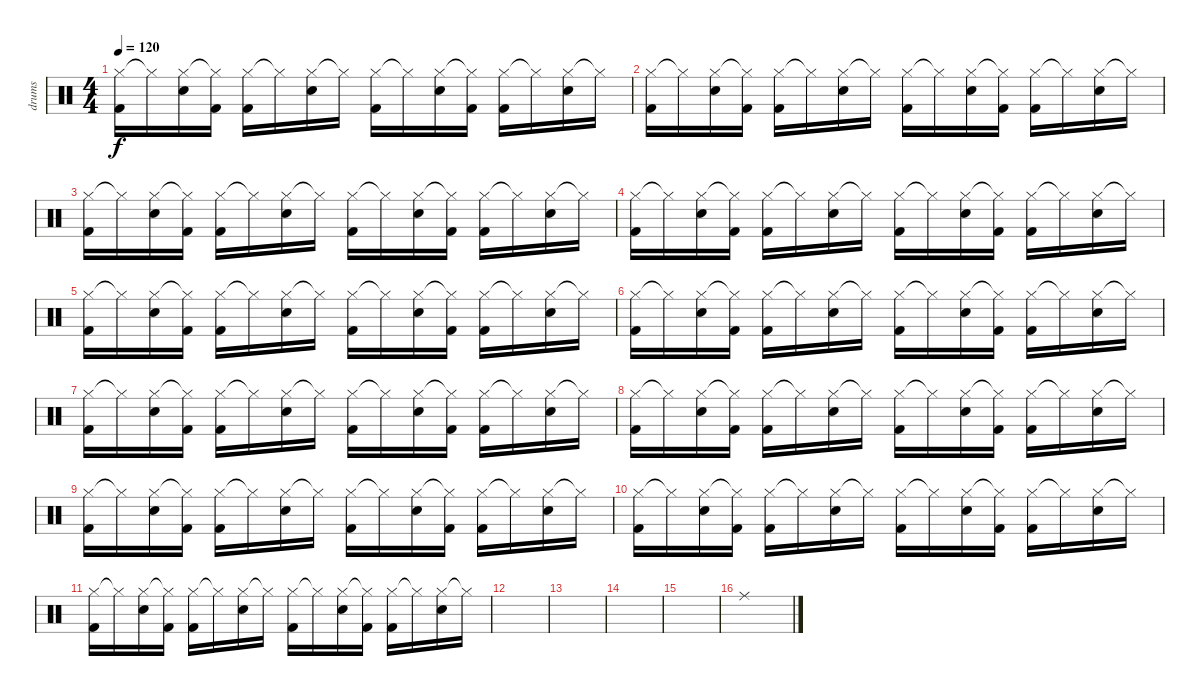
\track ("drums" "drums") {instrument percussion}
\staff {score}
\articulation defaults
\ts (4 4)
\tempo 120
\clef neutral
\ks c
("Hi-Hat (closed)" "Kick (hit) 2").16{dy f} "Hi-Hat (closed)"{t}.16 ("Hi-Hat (closed)" "Snare (hit) 2").16 ("Hi-Hat (closed)"{t} "Kick (hit) 2").16 ("Hi-Hat (closed)" "Kick (hit) 2").16 "Hi-Hat (closed)"{t}.16 ("Hi-Hat (closed)" "Snare (hit) 2").16 "Hi-Hat (closed)"{t}.16 ("Hi-Hat (closed)" "Kick (hit) 2").16 "Hi-Hat (closed)"{t}.16 ("Hi-Hat (closed)" "Snare (hit) 2").16 ("Hi-Hat (closed)"{t} "Kick (hit) 2").16 ("Hi-Hat (closed)" "Kick (hit) 2").16 "Hi-Hat (closed)"{t}.16 ("Hi-Hat (closed)" "Snare (hit) 2").16 "Hi-Hat (closed)"{t}.16 |
("Hi-Hat (closed)" "Kick (hit) 2").16 "Hi-Hat (closed)"{t}.16 ("Hi-Hat (closed)" "Snare (hit) 2").16 ("Hi-Hat (closed)"{t} "Kick (hit) 2").16 ("Hi-Hat (closed)" "Kick (hit) 2").16 "Hi-Hat (closed)"{t}.16 ("Hi-Hat (closed)" "Snare (hit) 2").16 "Hi-Hat (closed)"{t}.16 ("Hi-Hat (closed)" "Kick (hit) 2").16 "Hi-Hat (closed)"{t}.16 ("Hi-Hat (closed)" "Snare (hit) 2").16 ("Hi-Hat (closed)"{t} "Kick (hit) 2").16 ("Hi-Hat (closed)" "Kick (hit) 2").16 "Hi-Hat (closed)"{t}.16 ("Hi-Hat (closed)" "Snare (hit) 2").16 "Hi-Hat (closed)"{t}.16 |
("Hi-Hat (closed)" "Kick (hit) 2").16 "Hi-Hat (closed)"{t}.16 ("Hi-Hat (closed)" "Snare (hit) 2").16 ("Hi-Hat (closed)"{t} "Kick (hit) 2").16 ("Hi-Hat (closed)" "Kick (hit) 2").16 "Hi-Hat (closed)"{t}.16 ("Hi-Hat (closed)" "Snare (hit) 2").16 "Hi-Hat (closed)"{t}.16 ("Hi-Hat (closed)" "Kick (hit) 2").16 "Hi-Hat (closed)"{t}.16 ("Hi-Hat (closed)" "Snare (hit) 2").16 ("Hi-Hat (closed)"{t} "Kick (hit) 2").16 ("Hi-Hat (closed)" "Kick (hit) 2").16 "Hi-Hat (closed)"{t}.16 ("Hi-Hat (closed)" "Snare (hit) 2").16 "Hi-Hat (closed)"{t}.16 |
("Hi-Hat (closed)" "Kick (hit) 2").16 "Hi-Hat (closed)"{t}.16 ("Hi-Hat (closed)" "Snare (hit) 2").16 ("Hi-Hat (closed)"{t} "Kick (hit) 2").16 ("Hi-Hat (closed)" "Kick (hit) 2").16 "Hi-Hat (closed)"{t}.16 ("Hi-Hat (closed)" "Snare (hit) 2").16 "Hi-Hat (closed)"{t}.16 ("Hi-Hat (closed)" "Kick (hit) 2").16 "Hi-Hat (closed)"{t}.16 ("Hi-Hat (closed)" "Snare (hit) 2").16 ("Hi-Hat (closed)"{t} "Kick (hit) 2").16 ("Hi-Hat (closed)" "Kick (hit) 2").16 "Hi-Hat (closed)"{t}.16 ("Hi-Hat (closed)" "Snare (hit) 2").16 "Hi-Hat (closed)"{t}.16 |
("Hi-Hat (closed)" "Kick (hit) 2").16 "Hi-Hat (closed)"{t}.16 ("Hi-Hat (closed)" "Snare (hit) 2").16 ("Hi-Hat (closed)"{t} "Kick (hit) 2").16 ("Hi-Hat (closed)" "Kick (hit) 2").16 "Hi-Hat (closed)"{t}.16 ("Hi-Hat (closed)" "Snare (hit) 2").16 "Hi-Hat (closed)"{t}.16 ("Hi-Hat (closed)" "Kick (hit) 2").16 "Hi-Hat (closed)"{t}.16 ("Hi-Hat (closed)" "Snare (hit) 2").16 ("Hi-Hat (closed)"{t} "Kick (hit) 2").16 ("Hi-Hat (closed)" "Kick (hit) 2").16 "Hi-Hat (closed)"{t}.16 ("Hi-Hat (closed)" "Snare (hit) 2").16 "Hi-Hat (closed)"{t}.16 |
("Hi-Hat (closed)" "Kick (hit) 2").16 "Hi-Hat (closed)"{t}.16 ("Hi-Hat (closed)" "Snare (hit) 2").16 ("Hi-Hat (closed)"{t} "Kick (hit) 2").16 ("Hi-Hat (closed)" "Kick (hit) 2").16 "Hi-Hat (closed)"{t}.16 ("Hi-Hat (closed)" "Snare (hit) 2").16 "Hi-Hat (closed)"{t}.16 ("Hi-Hat (closed)" "Kick (hit) 2").16 "Hi-Hat (closed)"{t}.16 ("Hi-Hat (closed)" "Snare (hit) 2").16 ("Hi-Hat (closed)"{t} "Kick (hit) 2").16 ("Hi-Hat (closed)" "Kick (hit) 2").16 "Hi-Hat (closed)"{t}.16 ("Hi-Hat (closed)" "Snare (hit) 2").16 "Hi-Hat (closed)"{t}.16 |
("Hi-Hat (closed)" "Kick (hit) 2").16 "Hi-Hat (closed)"{t}.16 ("Hi-Hat (closed)" "Snare (hit) 2").16 ("Hi-Hat (closed)"{t} "Kick (hit) 2").16 ("Hi-Hat (closed)" "Kick (hit) 2").16 "Hi-Hat (closed)"{t}.16 ("Hi-Hat (closed)" "Snare (hit) 2").16 "Hi-Hat (closed)"{t}.16 ("Hi-Hat (closed)" "Kick (hit) 2").16 "Hi-Hat (closed)"{t}.16 ("Hi-Hat (closed)" "Snare (hit) 2").16 ("Hi-Hat (closed)"{t} "Kick (hit) 2").16 ("Hi-Hat (closed)" "Kick (hit) 2").16 "Hi-Hat (closed)"{t}.16 ("Hi-Hat (closed)" "Snare (hit) 2").16 "Hi-Hat (closed)"{t}.16 |
("Hi-Hat (closed)" "Kick (hit) 2").16 "Hi-Hat (closed)"{t}.16 ("Hi-Hat (closed)" "Snare (hit) 2").16 ("Hi-Hat (closed)"{t} "Kick (hit) 2").16 ("Hi-Hat (closed)" "Kick (hit) 2").16 "Hi-Hat (closed)"{t}.16 ("Hi-Hat (closed)" "Snare (hit) 2").16 "Hi-Hat (closed)"{t}.16 ("Hi-Hat (closed)" "Kick (hit) 2").16 "Hi-Hat (closed)"{t}.16 ("Hi-Hat (closed)" "Snare (hit) 2").16 ("Hi-Hat (closed)"{t} "Kick (hit) 2").16 ("Hi-Hat (closed)" "Kick (hit) 2").16 "Hi-Hat (closed)"{t}.16 ("Hi-Hat (closed)" "Snare (hit) 2").16 "Hi-Hat (closed)"{t}.16 |
("Hi-Hat (closed)" "Kick (hit) 2").16 "Hi-Hat (closed)"{t}.16 ("Hi-Hat (closed)" "Snare (hit) 2").16 ("Hi-Hat (closed)"{t} "Kick (hit) 2").16 ("Hi-Hat (closed)" "Kick (hit) 2").16 "Hi-Hat (closed)"{t}.16 ("Hi-Hat (closed)" "Snare (hit) 2").16 "Hi-Hat (closed)"{t}.16 ("Hi-Hat (closed)" "Kick (hit) 2").16 "Hi-Hat (closed)"{t}.16 ("Hi-Hat (closed)" "Snare (hit) 2").16 ("Hi-Hat (closed)"{t} "Kick (hit) 2").16 ("Hi-Hat (closed)" "Kick (hit) 2").16 "Hi-Hat (closed)"{t}.16 ("Hi-Hat (closed)" "Snare (hit) 2").16 "Hi-Hat (closed)"{t}.16 |
("Hi-Hat (closed)" "Kick (hit) 2").16 "Hi-Hat (closed)"{t}.16 ("Hi-Hat (closed)" "Snare (hit) 2").16 ("Hi-Hat (closed)"{t} "Kick (hit) 2").16 ("Hi-Hat (closed)" "Kick (hit) 2").16 "Hi-Hat (closed)"{t}.16 ("Hi-Hat (closed)" "Snare (hit) 2").16 "Hi-Hat (closed)"{t}.16 ("Hi-Hat (closed)" "Kick (hit) 2").16 "Hi-Hat (closed)"{t}.16 ("Hi-Hat (closed)" "Snare (hit) 2").16 ("Hi-Hat (closed)"{t} "Kick (hit) 2").16 ("Hi-Hat (closed)" "Kick (hit) 2").16 "Hi-Hat (closed)"{t}.16 ("Hi-Hat (closed)" "Snare (hit) 2").16 "Hi-Hat (closed)"{t}.16 |
("Hi-Hat (closed)" "Kick (hit) 2").16 "Hi-Hat (closed)"{t}.16 ("Hi-Hat (closed)" "Snare (hit) 2").16 ("Hi-Hat (closed)"{t} "Kick (hit) 2").16 ("Hi-Hat (closed)" "Kick (hit) 2").16 "Hi-Hat (closed)"{t}.16 ("Hi-Hat (closed)" "Snare (hit) 2").16 "Hi-Hat (closed)"{t}.16 ("Hi-Hat (closed)" "Kick (hit) 2").16 "Hi-Hat (closed)"{t}.16 ("Hi-Hat (closed)" "Snare (hit) 2").16 ("Hi-Hat (closed)"{t} "Kick (hit) 2").16 ("Hi-Hat (closed)" "Kick (hit) 2").16 "Hi-Hat (closed)"{t}.16 ("Hi-Hat (closed)" "Snare (hit) 2").16 "Hi-Hat (closed)"{t}.16 |
|
|
|
|
"Ride (middle)".1
